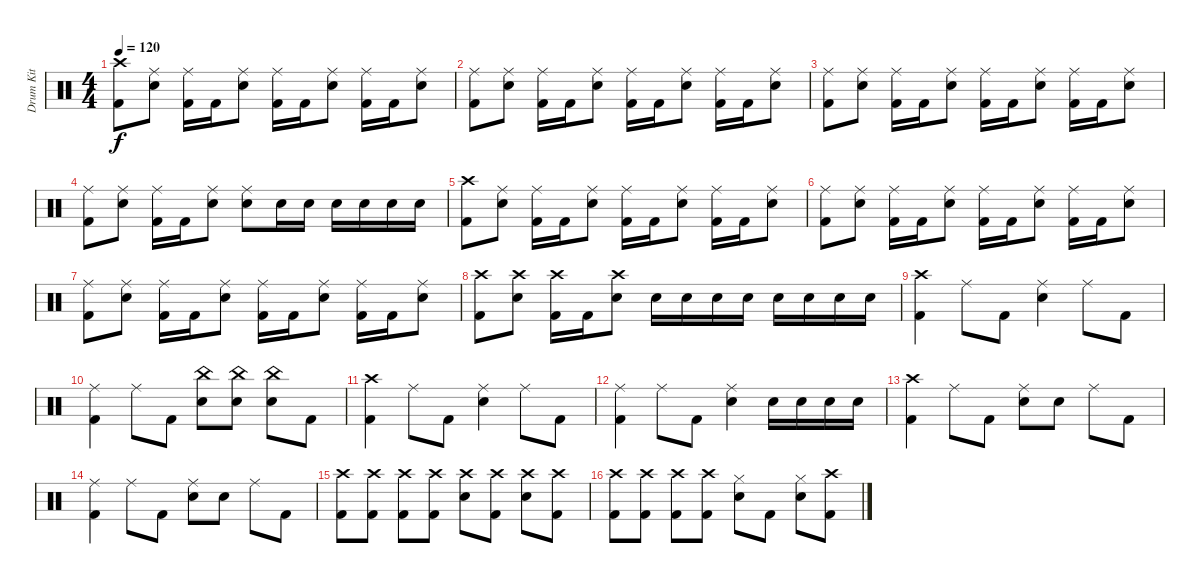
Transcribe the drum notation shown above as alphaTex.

\track ("Drum Kit" "Drum Kit") {instrument percussion}
\staff {score}
\articulation defaults
\ts (4 4)
\tempo 120
\clef neutral
\ks c
("Crash high (hit)" "Kick (hit) 2").8{dy f} ("Ride (middle)" "Snare (hit) 2").8 ("Ride (middle)" "Kick (hit) 2").16 "Kick (hit) 2".16 ("Ride (middle)" "Snare (hit) 2").8 ("Ride (middle)" "Kick (hit) 2").16 "Kick (hit) 2".16 ("Ride (middle)" "Snare (hit) 2").8 ("Ride (middle)" "Kick (hit) 2").16 "Kick (hit) 2".16 ("Ride (middle)" "Snare (hit) 2").8 |
("Ride (middle)" "Kick (hit) 2").8 ("Ride (middle)" "Snare (hit) 2").8 ("Ride (middle)" "Kick (hit) 2").16 "Kick (hit) 2".16 ("Ride (middle)" "Snare (hit) 2").8 ("Ride (middle)" "Kick (hit) 2").16 "Kick (hit) 2".16 ("Ride (middle)" "Snare (hit) 2").8 ("Ride (middle)" "Kick (hit) 2").16 "Kick (hit) 2".16 ("Ride (middle)" "Snare (hit) 2").8 |
("Ride (middle)" "Kick (hit) 2").8 ("Ride (middle)" "Snare (hit) 2").8 ("Ride (middle)" "Kick (hit) 2").16 "Kick (hit) 2".16 ("Ride (middle)" "Snare (hit) 2").8 ("Ride (middle)" "Kick (hit) 2").16 "Kick (hit) 2".16 ("Ride (middle)" "Snare (hit) 2").8 ("Ride (middle)" "Kick (hit) 2").16 "Kick (hit) 2".16 ("Ride (middle)" "Snare (hit) 2").8 |
("Ride (middle)" "Kick (hit) 2").8 ("Ride (middle)" "Snare (hit) 2").8 ("Ride (middle)" "Kick (hit) 2").16 "Kick (hit) 2".16 ("Ride (middle)" "Snare (hit) 2").8 ("Ride (middle)" "Snare (hit) 2").8 "Snare (hit) 2".16 "Snare (hit) 2".16 "Snare (hit) 2".16 "Snare (hit) 2".16 "Snare (hit) 2".16 "Snare (hit) 2".16 |
("Crash high (hit)" "Kick (hit) 2").8 ("Ride (middle)" "Snare (hit) 2").8 ("Ride (middle)" "Kick (hit) 2").16 "Kick (hit) 2".16 ("Ride (middle)" "Snare (hit) 2").8 ("Ride (middle)" "Kick (hit) 2").16 "Kick (hit) 2".16 ("Ride (middle)" "Snare (hit) 2").8 ("Ride (middle)" "Kick (hit) 2").16 "Kick (hit) 2".16 ("Ride (middle)" "Snare (hit) 2").8 |
("Ride (middle)" "Kick (hit) 2").8 ("Ride (middle)" "Snare (hit) 2").8 ("Ride (middle)" "Kick (hit) 2").16 "Kick (hit) 2".16 ("Ride (middle)" "Snare (hit) 2").8 ("Ride (middle)" "Kick (hit) 2").16 "Kick (hit) 2".16 ("Ride (middle)" "Snare (hit) 2").8 ("Ride (middle)" "Kick (hit) 2").16 "Kick (hit) 2".16 ("Ride (middle)" "Snare (hit) 2").8 |
("Ride (middle)" "Kick (hit) 2").8 ("Ride (middle)" "Snare (hit) 2").8 ("Ride (middle)" "Kick (hit) 2").16 "Kick (hit) 2".16 ("Ride (middle)" "Snare (hit) 2").8 ("Ride (middle)" "Kick (hit) 2").16 "Kick (hit) 2".16 ("Ride (middle)" "Snare (hit) 2").8 ("Ride (middle)" "Kick (hit) 2").16 "Kick (hit) 2".16 ("Ride (middle)" "Snare (hit) 2").8 |
("Crash high (hit)" "Kick (hit) 2").8 ("Crash high (hit)" "Snare (hit) 2").8 ("Crash high (hit)" "Kick (hit) 2").16 "Kick (hit) 2".16 ("Crash high (hit)" "Snare (hit) 2").8 "Snare (hit) 2".16 "Snare (hit) 2".16 "Snare (hit) 2".16 "Snare (hit) 2".16 "Snare (hit) 2".16 "Snare (hit) 2".16 "Snare (hit) 2".16 "Snare (hit) 2".16 |
("Crash high (hit)" "Kick (hit) 2").4 "Ride (middle)".8 "Kick (hit) 2".8 ("Ride (middle)" "Snare (hit) 2").4 "Ride (middle)".8 "Kick (hit) 2".8 |
("Ride (middle)" "Kick (hit) 2").4 "Ride (middle)".8 "Kick (hit) 2".8 ("China (hit)" "Snare (hit) 2").8 ("China (hit)" "Snare (hit) 2").8 ("China (hit)" "Snare (hit) 2").8 "Kick (hit) 2".8 |
("Crash high (hit)" "Kick (hit) 2").4 "Ride (middle)".8 "Kick (hit) 2".8 ("Ride (middle)" "Snare (hit) 2").4 "Ride (middle)".8 "Kick (hit) 2".8 |
("Ride (middle)" "Kick (hit) 2").4 "Ride (middle)".8 "Kick (hit) 2".8 ("Ride (middle)" "Snare (hit) 2").4 "Snare (hit) 2".16 "Snare (hit) 2".16 "Snare (hit) 2".16 "Snare (hit) 2".16 |
("Crash high (hit)" "Kick (hit) 2").4 "Ride (middle)".8 "Kick (hit) 2".8 ("Ride (middle)" "Snare (hit) 2").8 "Snare (hit) 2".8 "Ride (middle)".8 "Kick (hit) 2".8 |
("Ride (middle)" "Kick (hit) 2").4 "Ride (middle)".8 "Kick (hit) 2".8 ("Ride (middle)" "Snare (hit) 2").8 "Snare (hit) 2".8 "Ride (middle)".8 "Kick (hit) 2".8 |
("Crash high (hit)" "Kick (hit) 2").8 ("Crash high (hit)" "Kick (hit) 2").8 ("Crash high (hit)" "Kick (hit) 2").8 ("Crash high (hit)" "Kick (hit) 2").8 ("Crash high (hit)" "Snare (hit) 2").8 ("Crash high (hit)" "Kick (hit) 2").8 ("Crash high (hit)" "Snare (hit) 2").8 ("Crash high (hit)" "Kick (hit) 2").8 |
("Crash high (hit)" "Kick (hit) 2").8 ("Crash high (hit)" "Kick (hit) 2").8 ("Crash high (hit)" "Kick (hit) 2").8 ("Crash high (hit)" "Kick (hit) 2").8 ("Hi-Hat (closed)" "Snare (hit) 2").8 "Kick (hit) 2".8 ("Hi-Hat (closed)" "Snare (hit) 2").8 ("Crash high (hit)" "Kick (hit) 2").8
